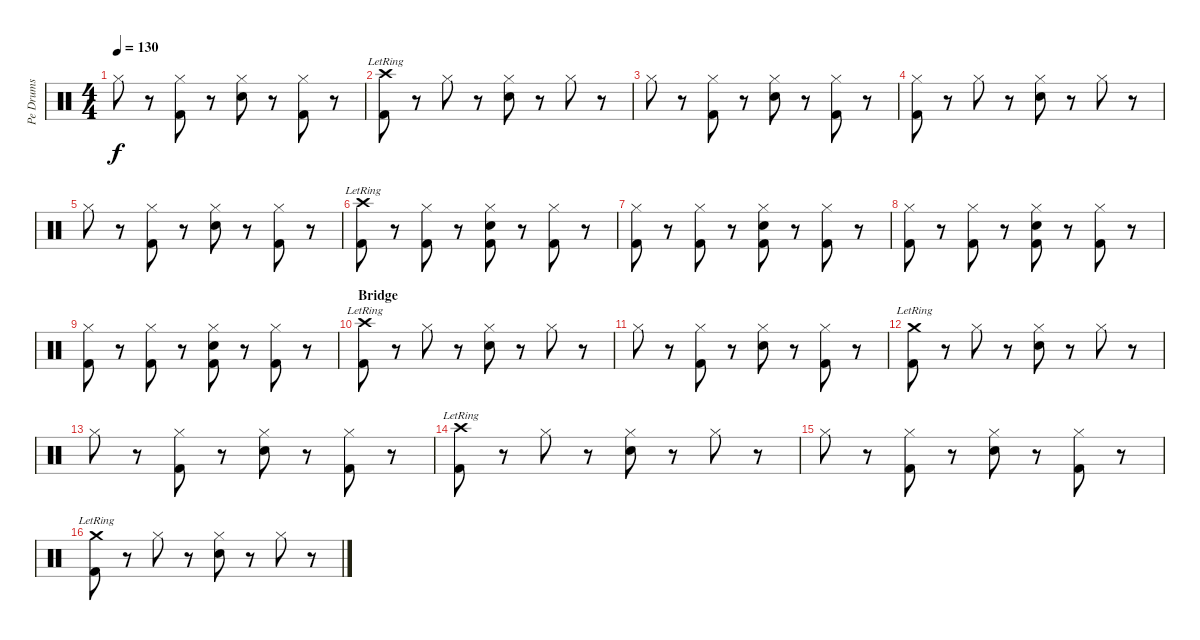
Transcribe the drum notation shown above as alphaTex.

\track ("Pe Drums" "Pe Drums") {instrument percussion}
\staff {score}
\articulation defaults
\ts (4 4)
\tempo 130
\clef neutral
\ks c "Hi-Hat (closed)".8{dy f}
r.8 ("Hi-Hat (closed)" "Kick (hit) 2").8 r.8 ("Hi-Hat (closed)" "Electric Snare (hit)").8 r.8 ("Hi-Hat (closed)" "Kick (hit) 2").8 r.8 |
("Crash high (hit)"{lr} "Kick (hit) 2").8 r.8 "Hi-Hat (closed)".8 r.8 ("Hi-Hat (closed)" "Electric Snare (hit)").8 r.8 "Hi-Hat (closed)".8 r.8 |
"Hi-Hat (closed)".8 r.8 ("Hi-Hat (closed)" "Kick (hit) 2").8 r.8 ("Hi-Hat (closed)" "Electric Snare (hit)").8 r.8 ("Hi-Hat (closed)" "Kick (hit) 2").8 r.8 |
("Hi-Hat (closed)" "Kick (hit) 2").8 r.8 "Hi-Hat (closed)".8 r.8 ("Hi-Hat (closed)" "Electric Snare (hit)").8 r.8 "Hi-Hat (closed)".8 r.8 |
"Hi-Hat (closed)".8 r.8 ("Hi-Hat (closed)" "Kick (hit) 2").8 r.8 ("Hi-Hat (closed)" "Electric Snare (hit)").8 r.8 ("Hi-Hat (closed)" "Kick (hit) 2").8 r.8 |
("Crash high (hit)"{lr} "Kick (hit) 2").8 r.8 ("Hi-Hat (closed)" "Kick (hit) 2").8 r.8 ("Hi-Hat (closed)" "Electric Snare (hit)" "Kick (hit) 2").8 r.8 ("Hi-Hat (closed)" "Kick (hit) 2").8 r.8 |
("Hi-Hat (closed)" "Kick (hit) 2").8 r.8 ("Hi-Hat (closed)" "Kick (hit) 2").8 r.8 ("Hi-Hat (closed)" "Electric Snare (hit)" "Kick (hit) 2").8 r.8 ("Hi-Hat (closed)" "Kick (hit) 2").8 r.8 |
("Hi-Hat (closed)" "Kick (hit) 2").8 r.8 ("Hi-Hat (closed)" "Kick (hit) 2").8 r.8 ("Hi-Hat (closed)" "Electric Snare (hit)" "Kick (hit) 2").8 r.8 ("Hi-Hat (closed)" "Kick (hit) 2").8 r.8 |
("Hi-Hat (closed)" "Kick (hit) 2").8 r.8 ("Hi-Hat (closed)" "Kick (hit) 2").8 r.8 ("Hi-Hat (closed)" "Electric Snare (hit)" "Kick (hit) 2").8 r.8 ("Hi-Hat (closed)" "Kick (hit) 2").8 r.8 |
\section ("" "Bridge")
("Crash high (hit)"{lr} "Kick (hit) 2").8 r.8 "Hi-Hat (closed)".8 r.8 ("Hi-Hat (closed)" "Electric Snare (hit)").8 r.8 "Hi-Hat (closed)".8 r.8 |
"Hi-Hat (closed)".8 r.8 ("Hi-Hat (closed)" "Kick (hit) 2").8 r.8 ("Hi-Hat (closed)" "Electric Snare (hit)").8 r.8 ("Hi-Hat (closed)" "Kick (hit) 2").8 r.8 |
("Crash medium (hit)"{lr} "Kick (hit) 2").8 r.8 "Hi-Hat (closed)".8 r.8 ("Hi-Hat (closed)" "Electric Snare (hit)").8 r.8 "Hi-Hat (closed)".8 r.8 |
"Hi-Hat (closed)".8 r.8 ("Hi-Hat (closed)" "Kick (hit) 2").8 r.8 ("Hi-Hat (closed)" "Electric Snare (hit)").8 r.8 ("Hi-Hat (closed)" "Kick (hit) 2").8 r.8 |
("Crash high (hit)"{lr} "Kick (hit) 2").8 r.8 "Hi-Hat (closed)".8 r.8 ("Hi-Hat (closed)" "Electric Snare (hit)").8 r.8 "Hi-Hat (closed)".8 r.8 |
"Hi-Hat (closed)".8 r.8 ("Hi-Hat (closed)" "Kick (hit) 2").8 r.8 ("Hi-Hat (closed)" "Electric Snare (hit)").8 r.8 ("Hi-Hat (closed)" "Kick (hit) 2").8 r.8 |
("Crash medium (hit)"{lr} "Kick (hit) 2").8 r.8 "Hi-Hat (closed)".8 r.8 ("Hi-Hat (closed)" "Electric Snare (hit)").8 r.8 "Hi-Hat (closed)".8 r.8
